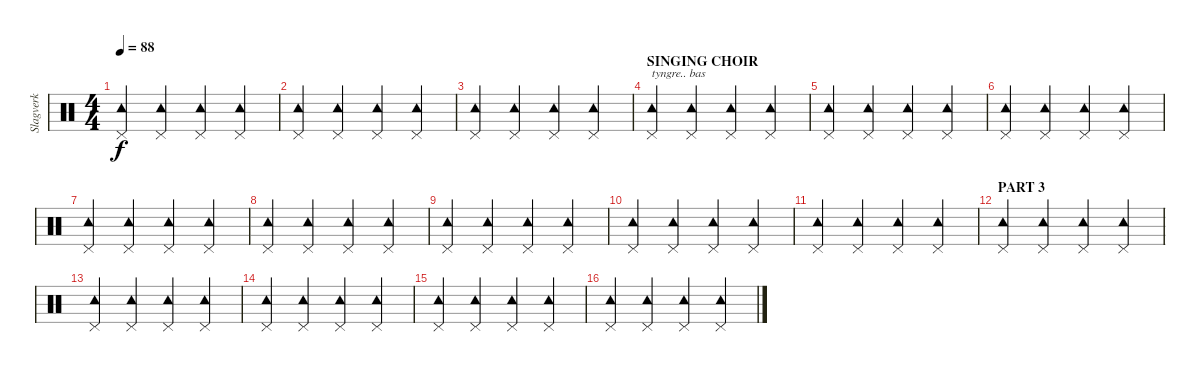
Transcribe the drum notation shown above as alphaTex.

\track ("Slagverk" "Slagverk") {instrument percussion}
\staff {score}
\articulation defaults
\ts (4 4)
\tempo 88
\clef neutral
\ks c
("Pedal Hi-Hat (hit)" "Tambourine (hit)").4{dy f} ("Pedal Hi-Hat (hit)" "Tambourine (hit)").4 ("Pedal Hi-Hat (hit)" "Tambourine (hit)").4 ("Pedal Hi-Hat (hit)" "Tambourine (hit)").4 |
("Pedal Hi-Hat (hit)" "Tambourine (hit)").4 ("Pedal Hi-Hat (hit)" "Tambourine (hit)").4 ("Pedal Hi-Hat (hit)" "Tambourine (hit)").4 ("Pedal Hi-Hat (hit)" "Tambourine (hit)").4 |
("Pedal Hi-Hat (hit)" "Tambourine (hit)").4 ("Pedal Hi-Hat (hit)" "Tambourine (hit)").4 ("Pedal Hi-Hat (hit)" "Tambourine (hit)").4 ("Pedal Hi-Hat (hit)" "Tambourine (hit)").4 |
\section ("" "SINGING CHOIR")
("Pedal Hi-Hat (hit)" "Tambourine (hit)").4{txt "tyngre.. bas"} ("Pedal Hi-Hat (hit)" "Tambourine (hit)").4 ("Pedal Hi-Hat (hit)" "Tambourine (hit)").4 ("Pedal Hi-Hat (hit)" "Tambourine (hit)").4 |
("Pedal Hi-Hat (hit)" "Tambourine (hit)").4 ("Pedal Hi-Hat (hit)" "Tambourine (hit)").4 ("Pedal Hi-Hat (hit)" "Tambourine (hit)").4 ("Pedal Hi-Hat (hit)" "Tambourine (hit)").4 |
("Pedal Hi-Hat (hit)" "Tambourine (hit)").4 ("Pedal Hi-Hat (hit)" "Tambourine (hit)").4 ("Pedal Hi-Hat (hit)" "Tambourine (hit)").4 ("Pedal Hi-Hat (hit)" "Tambourine (hit)").4 |
("Pedal Hi-Hat (hit)" "Tambourine (hit)").4 ("Pedal Hi-Hat (hit)" "Tambourine (hit)").4 ("Pedal Hi-Hat (hit)" "Tambourine (hit)").4 ("Pedal Hi-Hat (hit)" "Tambourine (hit)").4 |
("Pedal Hi-Hat (hit)" "Tambourine (hit)").4 ("Pedal Hi-Hat (hit)" "Tambourine (hit)").4 ("Pedal Hi-Hat (hit)" "Tambourine (hit)").4 ("Pedal Hi-Hat (hit)" "Tambourine (hit)").4 |
("Pedal Hi-Hat (hit)" "Tambourine (hit)").4 ("Pedal Hi-Hat (hit)" "Tambourine (hit)").4 ("Pedal Hi-Hat (hit)" "Tambourine (hit)").4 ("Pedal Hi-Hat (hit)" "Tambourine (hit)").4 |
("Pedal Hi-Hat (hit)" "Tambourine (hit)").4 ("Pedal Hi-Hat (hit)" "Tambourine (hit)").4 ("Pedal Hi-Hat (hit)" "Tambourine (hit)").4 ("Pedal Hi-Hat (hit)" "Tambourine (hit)").4 |
("Pedal Hi-Hat (hit)" "Tambourine (hit)").4 ("Pedal Hi-Hat (hit)" "Tambourine (hit)").4 ("Pedal Hi-Hat (hit)" "Tambourine (hit)").4 ("Pedal Hi-Hat (hit)" "Tambourine (hit)").4 |
\section ("" "PART 3")
("Pedal Hi-Hat (hit)" "Tambourine (hit)").4 ("Pedal Hi-Hat (hit)" "Tambourine (hit)").4 ("Pedal Hi-Hat (hit)" "Tambourine (hit)").4 ("Pedal Hi-Hat (hit)" "Tambourine (hit)").4 |
("Pedal Hi-Hat (hit)" "Tambourine (hit)").4 ("Pedal Hi-Hat (hit)" "Tambourine (hit)").4 ("Pedal Hi-Hat (hit)" "Tambourine (hit)").4 ("Pedal Hi-Hat (hit)" "Tambourine (hit)").4 |
("Pedal Hi-Hat (hit)" "Tambourine (hit)").4 ("Pedal Hi-Hat (hit)" "Tambourine (hit)").4 ("Pedal Hi-Hat (hit)" "Tambourine (hit)").4 ("Pedal Hi-Hat (hit)" "Tambourine (hit)").4 |
("Pedal Hi-Hat (hit)" "Tambourine (hit)").4 ("Pedal Hi-Hat (hit)" "Tambourine (hit)").4 ("Pedal Hi-Hat (hit)" "Tambourine (hit)").4 ("Pedal Hi-Hat (hit)" "Tambourine (hit)").4 |
("Pedal Hi-Hat (hit)" "Tambourine (hit)").4 ("Pedal Hi-Hat (hit)" "Tambourine (hit)").4 ("Pedal Hi-Hat (hit)" "Tambourine (hit)").4 ("Pedal Hi-Hat (hit)" "Tambourine (hit)").4
